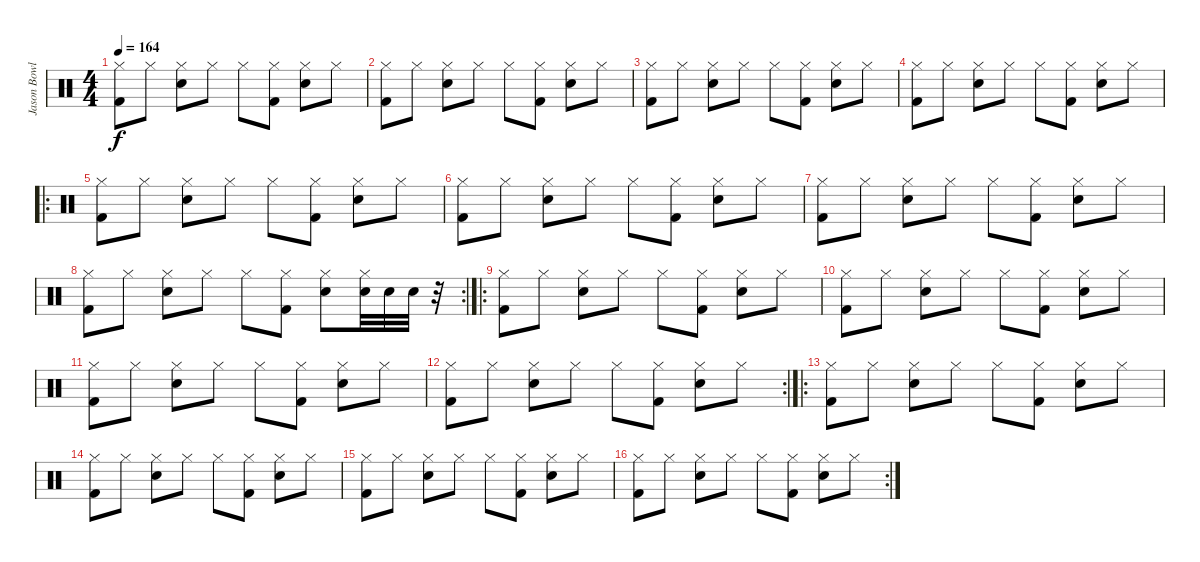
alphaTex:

\track ("Jason Bowld" "Jason Bowl") {instrument percussion}
\staff {score}
\articulation defaults
\ts (4 4)
\tempo 164
\clef neutral
\ks c
("Hi-Hat (closed)" "Kick (hit) 2").8{dy f} "Hi-Hat (closed)".8 ("Hi-Hat (closed)" "Snare (hit) 2").8 "Hi-Hat (closed)".8 "Hi-Hat (closed)".8 ("Hi-Hat (closed)" "Kick (hit) 2").8 ("Hi-Hat (closed)" "Snare (hit) 2").8 "Hi-Hat (closed)".8 |
("Hi-Hat (closed)" "Kick (hit) 2").8 "Hi-Hat (closed)".8 ("Hi-Hat (closed)" "Snare (hit) 2").8 "Hi-Hat (closed)".8 "Hi-Hat (closed)".8 ("Hi-Hat (closed)" "Kick (hit) 2").8 ("Hi-Hat (closed)" "Snare (hit) 2").8 "Hi-Hat (closed)".8 |
("Hi-Hat (closed)" "Kick (hit) 2").8 "Hi-Hat (closed)".8 ("Hi-Hat (closed)" "Snare (hit) 2").8 "Hi-Hat (closed)".8 "Hi-Hat (closed)".8 ("Hi-Hat (closed)" "Kick (hit) 2").8 ("Hi-Hat (closed)" "Snare (hit) 2").8 "Hi-Hat (closed)".8 |
("Hi-Hat (closed)" "Kick (hit) 2").8 "Hi-Hat (closed)".8 ("Hi-Hat (closed)" "Snare (hit) 2").8 "Hi-Hat (closed)".8 "Hi-Hat (closed)".8 ("Hi-Hat (closed)" "Kick (hit) 2").8 ("Hi-Hat (closed)" "Snare (hit) 2").8 "Hi-Hat (closed)".8 |
\ro
("Hi-Hat (closed)" "Kick (hit) 2").8 "Hi-Hat (closed)".8 ("Hi-Hat (closed)" "Snare (hit) 2").8 "Hi-Hat (closed)".8 "Hi-Hat (closed)".8 ("Hi-Hat (closed)" "Kick (hit) 2").8 ("Hi-Hat (closed)" "Snare (hit) 2").8 "Hi-Hat (closed)".8 |
("Hi-Hat (closed)" "Kick (hit) 2").8 "Hi-Hat (closed)".8 ("Hi-Hat (closed)" "Snare (hit) 2").8 "Hi-Hat (closed)".8 "Hi-Hat (closed)".8 ("Hi-Hat (closed)" "Kick (hit) 2").8 ("Hi-Hat (closed)" "Snare (hit) 2").8 "Hi-Hat (closed)".8 |
("Hi-Hat (closed)" "Kick (hit) 2").8 "Hi-Hat (closed)".8 ("Hi-Hat (closed)" "Snare (hit) 2").8 "Hi-Hat (closed)".8 "Hi-Hat (closed)".8 ("Hi-Hat (closed)" "Kick (hit) 2").8 ("Hi-Hat (closed)" "Snare (hit) 2").8 "Hi-Hat (closed)".8 |
\rc 2
("Hi-Hat (closed)" "Kick (hit) 2").8 "Hi-Hat (closed)".8 ("Hi-Hat (closed)" "Snare (hit) 2").8 "Hi-Hat (closed)".8 "Hi-Hat (closed)".8 ("Hi-Hat (closed)" "Kick (hit) 2").8 ("Hi-Hat (closed)" "Snare (hit) 2").8 ("Hi-Hat (closed)" "Snare (hit) 2").32 "Snare (hit) 2".32 "Snare (hit) 2".32 r.32 |
\ro
("Hi-Hat (closed)" "Kick (hit) 2").8 "Hi-Hat (closed)".8 ("Hi-Hat (closed)" "Snare (hit) 2").8 "Hi-Hat (closed)".8 "Hi-Hat (closed)".8 ("Hi-Hat (closed)" "Kick (hit) 2").8 ("Hi-Hat (closed)" "Snare (hit) 2").8 "Hi-Hat (closed)".8 |
("Hi-Hat (closed)" "Kick (hit) 2").8 "Hi-Hat (closed)".8 ("Hi-Hat (closed)" "Snare (hit) 2").8 "Hi-Hat (closed)".8 "Hi-Hat (closed)".8 ("Hi-Hat (closed)" "Kick (hit) 2").8 ("Hi-Hat (closed)" "Snare (hit) 2").8 "Hi-Hat (closed)".8 |
("Hi-Hat (closed)" "Kick (hit) 2").8 "Hi-Hat (closed)".8 ("Hi-Hat (closed)" "Snare (hit) 2").8 "Hi-Hat (closed)".8 "Hi-Hat (closed)".8 ("Hi-Hat (closed)" "Kick (hit) 2").8 ("Hi-Hat (closed)" "Snare (hit) 2").8 "Hi-Hat (closed)".8 |
\rc 2
("Hi-Hat (closed)" "Kick (hit) 2").8 "Hi-Hat (closed)".8 ("Hi-Hat (closed)" "Snare (hit) 2").8 "Hi-Hat (closed)".8 "Hi-Hat (closed)".8 ("Hi-Hat (closed)" "Kick (hit) 2").8 ("Hi-Hat (closed)" "Snare (hit) 2").8 "Hi-Hat (closed)".8 |
\ro
("Hi-Hat (closed)" "Kick (hit) 2").8 "Hi-Hat (closed)".8 ("Hi-Hat (closed)" "Snare (hit) 2").8 "Hi-Hat (closed)".8 "Hi-Hat (closed)".8 ("Hi-Hat (closed)" "Kick (hit) 2").8 ("Hi-Hat (closed)" "Snare (hit) 2").8 "Hi-Hat (closed)".8 |
("Hi-Hat (closed)" "Kick (hit) 2").8 "Hi-Hat (closed)".8 ("Hi-Hat (closed)" "Snare (hit) 2").8 "Hi-Hat (closed)".8 "Hi-Hat (closed)".8 ("Hi-Hat (closed)" "Kick (hit) 2").8 ("Hi-Hat (closed)" "Snare (hit) 2").8 "Hi-Hat (closed)".8 |
("Hi-Hat (closed)" "Kick (hit) 2").8 "Hi-Hat (closed)".8 ("Hi-Hat (closed)" "Snare (hit) 2").8 "Hi-Hat (closed)".8 "Hi-Hat (closed)".8 ("Hi-Hat (closed)" "Kick (hit) 2").8 ("Hi-Hat (closed)" "Snare (hit) 2").8 "Hi-Hat (closed)".8 |
\rc 2
("Hi-Hat (closed)" "Kick (hit) 2").8 "Hi-Hat (closed)".8 ("Hi-Hat (closed)" "Snare (hit) 2").8 "Hi-Hat (closed)".8 "Hi-Hat (closed)".8 ("Hi-Hat (closed)" "Kick (hit) 2").8 ("Hi-Hat (closed)" "Snare (hit) 2").8 "Hi-Hat (closed)".8
